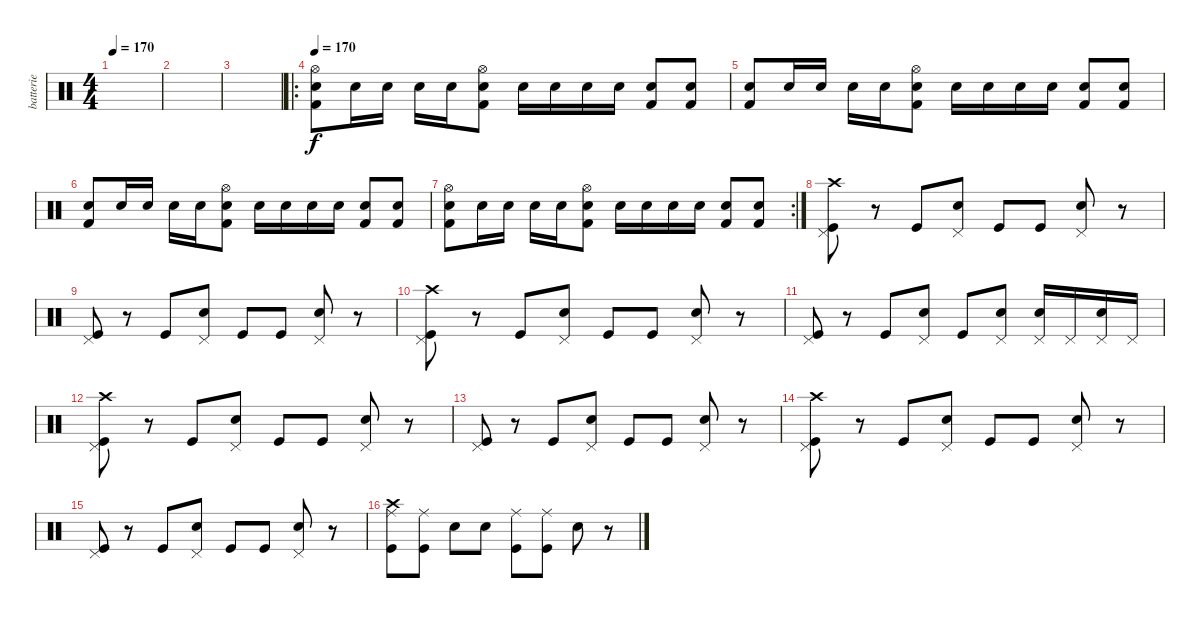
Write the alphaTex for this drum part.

\track ("batterie" "batterie") {instrument percussion}
\staff {score}
\articulation defaults
\ts (4 4)
\tempo 170
\tempo 145
\tempo 170
\clef neutral
\ks c
|
|
|
\ro
\tempo 170
("Hi-Hat (open)" "Electric Snare (hit)" "Kick (hit) 2").8 "Electric Snare (hit)".16 "Electric Snare (hit)".16 "Electric Snare (hit)".16 "Electric Snare (hit)".16 ("Hi-Hat (open)" "Electric Snare (hit)" "Kick (hit) 2").8 "Electric Snare (hit)".16 "Electric Snare (hit)".16 "Electric Snare (hit)".16 "Electric Snare (hit)".16 ("Electric Snare (hit)" "Kick (hit) 2").8 ("Electric Snare (hit)" "Kick (hit) 2").8 |
("Electric Snare (hit)" "Kick (hit) 2").8 "Electric Snare (hit)".16 "Electric Snare (hit)".16 "Electric Snare (hit)".16 "Electric Snare (hit)".16 ("Hi-Hat (open)" "Electric Snare (hit)" "Kick (hit) 2").8 "Electric Snare (hit)".16 "Electric Snare (hit)".16 "Electric Snare (hit)".16 "Electric Snare (hit)".16 ("Electric Snare (hit)" "Kick (hit) 2").8 ("Electric Snare (hit)" "Kick (hit) 2").8 |
("Electric Snare (hit)" "Kick (hit) 2").8 "Electric Snare (hit)".16 "Electric Snare (hit)".16 "Electric Snare (hit)".16 "Electric Snare (hit)".16 ("Hi-Hat (open)" "Electric Snare (hit)" "Kick (hit) 2").8 "Electric Snare (hit)".16 "Electric Snare (hit)".16 "Electric Snare (hit)".16 "Electric Snare (hit)".16 ("Electric Snare (hit)" "Kick (hit) 2").8 ("Electric Snare (hit)" "Kick (hit) 2").8 |
\rc 2
("Hi-Hat (open)" "Electric Snare (hit)" "Kick (hit) 2").8 "Electric Snare (hit)".16 "Electric Snare (hit)".16 "Electric Snare (hit)".16 "Electric Snare (hit)".16 ("Hi-Hat (open)" "Electric Snare (hit)" "Kick (hit) 2").8 "Electric Snare (hit)".16 "Electric Snare (hit)".16 "Electric Snare (hit)".16 "Electric Snare (hit)".16 ("Electric Snare (hit)" "Kick (hit) 2").8 ("Electric Snare (hit)" "Kick (hit) 2").8 |
("Crash high (hit)" "Pedal Hi-Hat (hit)" "Kick (hit)").8 r.8 "Kick (hit)".8 ("Pedal Hi-Hat (hit)" "Electric Snare (hit)").8 "Kick (hit)".8 "Kick (hit)".8 ("Pedal Hi-Hat (hit)" "Electric Snare (hit)").8 r.8 |
("Pedal Hi-Hat (hit)" "Kick (hit)").8 r.8 "Kick (hit)".8 ("Pedal Hi-Hat (hit)" "Electric Snare (hit)").8 "Kick (hit)".8 "Kick (hit)".8 ("Pedal Hi-Hat (hit)" "Electric Snare (hit)").8 r.8 |
("Crash high (hit)" "Pedal Hi-Hat (hit)" "Kick (hit)").8 r.8 "Kick (hit)".8 ("Pedal Hi-Hat (hit)" "Electric Snare (hit)").8 "Kick (hit)".8 "Kick (hit)".8 ("Pedal Hi-Hat (hit)" "Electric Snare (hit)").8 r.8 |
("Pedal Hi-Hat (hit)" "Kick (hit)").8 r.8 "Kick (hit)".8 ("Pedal Hi-Hat (hit)" "Electric Snare (hit)").8 "Kick (hit)".8 ("Pedal Hi-Hat (hit)" "Electric Snare (hit)").8 ("Pedal Hi-Hat (hit)" "Electric Snare (hit)").16 "Pedal Hi-Hat (hit)".16 ("Pedal Hi-Hat (hit)" "Electric Snare (hit)").16 "Pedal Hi-Hat (hit)".16 |
("Crash high (hit)" "Pedal Hi-Hat (hit)" "Kick (hit)").8 r.8 "Kick (hit)".8 ("Pedal Hi-Hat (hit)" "Electric Snare (hit)").8 "Kick (hit)".8 "Kick (hit)".8 ("Pedal Hi-Hat (hit)" "Electric Snare (hit)").8 r.8 |
("Pedal Hi-Hat (hit)" "Kick (hit)").8 r.8 "Kick (hit)".8 ("Pedal Hi-Hat (hit)" "Electric Snare (hit)").8 "Kick (hit)".8 "Kick (hit)".8 ("Pedal Hi-Hat (hit)" "Electric Snare (hit)").8 r.8 |
("Crash high (hit)" "Pedal Hi-Hat (hit)" "Kick (hit)").8 r.8 "Kick (hit)".8 ("Pedal Hi-Hat (hit)" "Electric Snare (hit)").8 "Kick (hit)".8 "Kick (hit)".8 ("Pedal Hi-Hat (hit)" "Electric Snare (hit)").8 r.8 |
("Pedal Hi-Hat (hit)" "Kick (hit)").8 r.8 "Kick (hit)".8 ("Pedal Hi-Hat (hit)" "Electric Snare (hit)").8 "Kick (hit)".8 "Kick (hit)".8 ("Pedal Hi-Hat (hit)" "Electric Snare (hit)").8 r.8 |
("Crash high (hit)" "Ride (middle)" "Kick (hit)").8 ("Ride (middle)" "Kick (hit)").8 "Electric Snare (hit)".8 "Electric Snare (hit)".8 ("Ride (middle)" "Kick (hit)").8 ("Ride (middle)" "Kick (hit)").8 "Electric Snare (hit)".8 r.8
